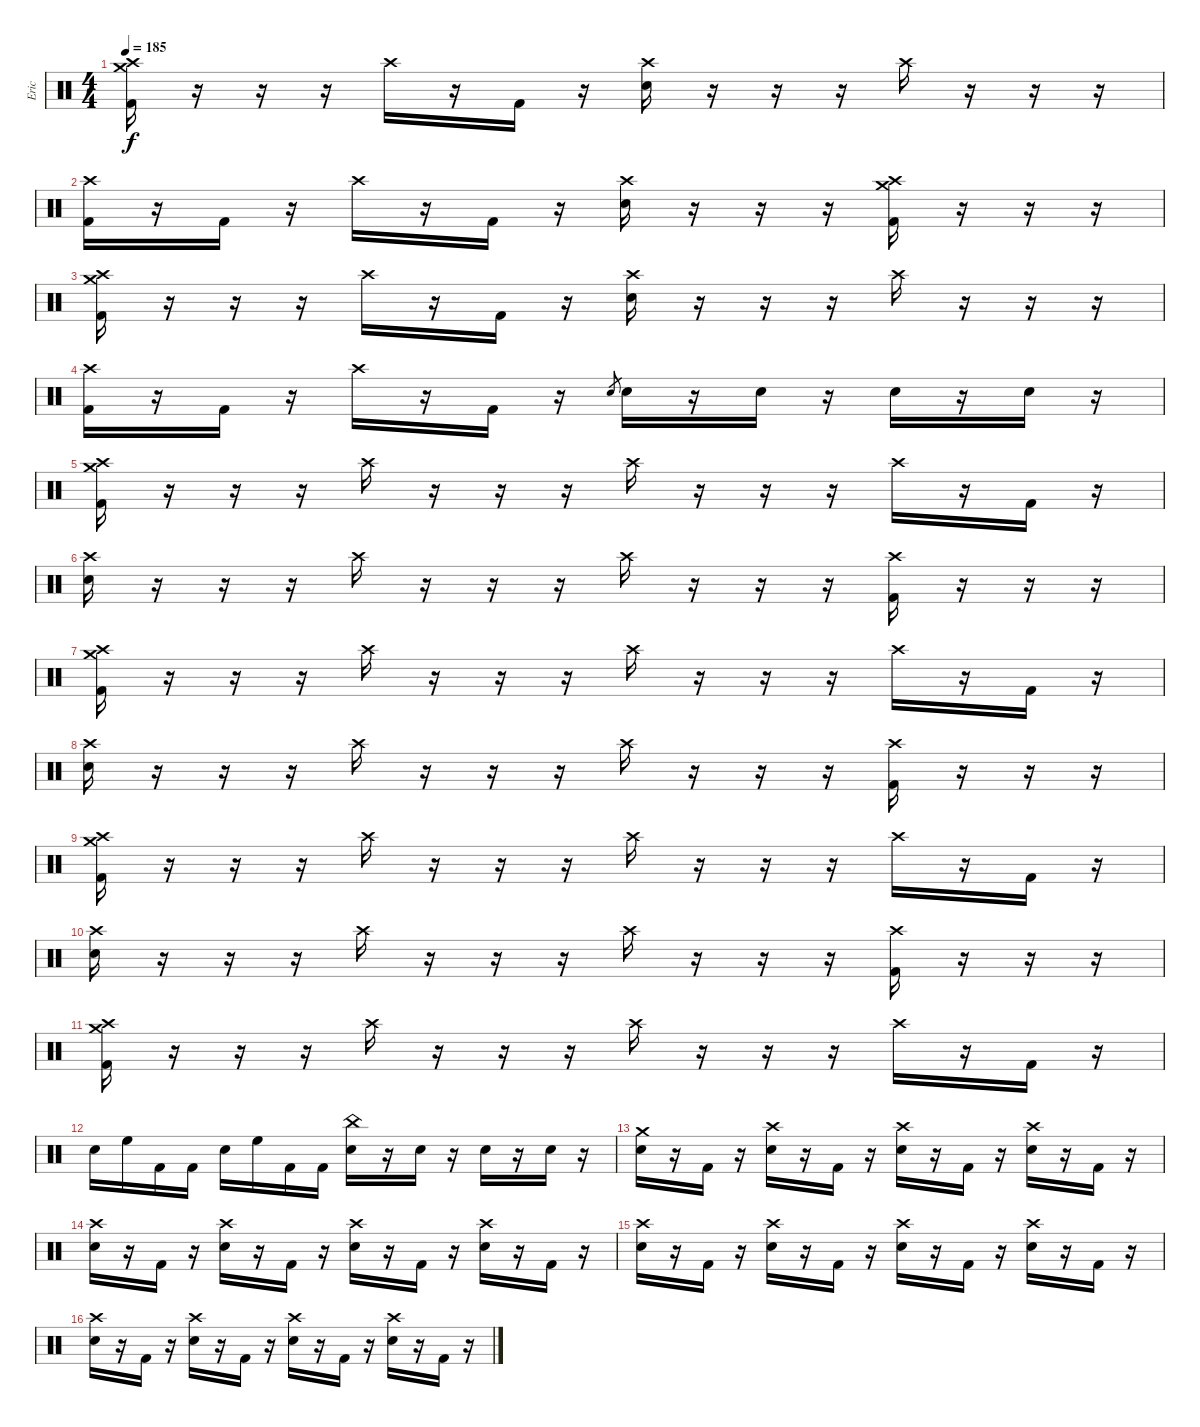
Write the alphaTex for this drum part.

\track ("Eric" "Eric") {instrument percussion}
\staff {score}
\articulation defaults
\ts (4 4)
\tempo 185
\clef neutral
\ks c
("Crash high (hit)" "Crash medium (hit)" "Kick (hit) 2").16{dy f} r.16 r.16 r.16 "Crash high (hit)".16 r.16 "Kick (hit) 2".16 r.16 ("Crash high (hit)" "Electric Snare (hit)").16 r.16 r.16 r.16 "Crash high (hit)".16 r.16 r.16 r.16 |
("Crash high (hit)" "Kick (hit) 2").16 r.16 "Kick (hit) 2".16 r.16 "Crash high (hit)".16 r.16 "Kick (hit) 2".16 r.16 ("Crash high (hit)" "Electric Snare (hit)").16 r.16 r.16 r.16 ("Crash medium (hit)" "Crash high (hit)" "Kick (hit) 2").16 r.16 r.16 r.16 |
("Crash high (hit)" "Crash medium (hit)" "Kick (hit) 2").16 r.16 r.16 r.16 "Crash high (hit)".16 r.16 "Kick (hit) 2".16 r.16 ("Crash high (hit)" "Electric Snare (hit)").16 r.16 r.16 r.16 "Crash high (hit)".16 r.16 r.16 r.16 |
("Crash high (hit)" "Kick (hit) 2").16 r.16 "Kick (hit) 2".16 r.16 "Crash high (hit)".16 r.16 "Kick (hit) 2".16 r.16 "Electric Snare (hit)".8{gr} "Electric Snare (hit)".16 r.16 "Electric Snare (hit)".16 r.16 "Electric Snare (hit)".16 r.16 "Electric Snare (hit)".16 r.16 |
("Crash high (hit)" "Crash medium (hit)" "Kick (hit) 2").16 r.16 r.16 r.16 "Crash high (hit)".16 r.16 r.16 r.16 "Crash high (hit)".16 r.16 r.16 r.16 "Crash high (hit)".16 r.16 "Kick (hit) 2".16 r.16 |
("Crash high (hit)" "Electric Snare (hit)").16 r.16 r.16 r.16 "Crash high (hit)".16 r.16 r.16 r.16 "Crash high (hit)".16 r.16 r.16 r.16 ("Crash high (hit)" "Kick (hit) 2").16 r.16 r.16 r.16 |
("Crash high (hit)" "Crash medium (hit)" "Kick (hit) 2").16 r.16 r.16 r.16 "Crash high (hit)".16 r.16 r.16 r.16 "Crash high (hit)".16 r.16 r.16 r.16 "Crash high (hit)".16 r.16 "Kick (hit) 2".16 r.16 |
("Crash high (hit)" "Electric Snare (hit)").16 r.16 r.16 r.16 "Crash high (hit)".16 r.16 r.16 r.16 "Crash high (hit)".16 r.16 r.16 r.16 ("Crash high (hit)" "Kick (hit) 2").16 r.16 r.16 r.16 |
("Crash high (hit)" "Crash medium (hit)" "Kick (hit) 2").16 r.16 r.16 r.16 "Crash high (hit)".16 r.16 r.16 r.16 "Crash high (hit)".16 r.16 r.16 r.16 "Crash high (hit)".16 r.16 "Kick (hit) 2".16 r.16 |
("Crash high (hit)" "Electric Snare (hit)").16 r.16 r.16 r.16 "Crash high (hit)".16 r.16 r.16 r.16 "Crash high (hit)".16 r.16 r.16 r.16 ("Crash high (hit)" "Kick (hit) 2").16 r.16 r.16 r.16 |
("Crash high (hit)" "Crash medium (hit)" "Kick (hit) 2").16 r.16 r.16 r.16 "Crash high (hit)".16 r.16 r.16 r.16 "Crash high (hit)".16 r.16 r.16 r.16 "Crash high (hit)".16 r.16 "Kick (hit) 2".16 r.16 |
"Electric Snare (hit)".16 "High Floor Tom (hit)".16 "Kick (hit) 2".16 "Kick (hit) 2".16 "Electric Snare (hit)".16 "High Floor Tom (hit)".16 "Kick (hit) 2".16 "Kick (hit) 2".16 ("China (hit)" "Electric Snare (hit)").16 r.16 "Electric Snare (hit)".16 r.16 "Electric Snare (hit)".16 r.16 "Electric Snare (hit)".16 r.16 |
("Crash medium (hit)" "Electric Snare (hit)").16 r.16 "Kick (hit) 2".16 r.16 ("Crash high (hit)" "Electric Snare (hit)").16 r.16 "Kick (hit) 2".16 r.16 ("Crash high (hit)" "Electric Snare (hit)").16 r.16 "Kick (hit) 2".16 r.16 ("Crash high (hit)" "Electric Snare (hit)").16 r.16 "Kick (hit) 2".16 r.16 |
("Crash high (hit)" "Electric Snare (hit)").16 r.16 "Kick (hit) 2".16 r.16 ("Crash high (hit)" "Electric Snare (hit)").16 r.16 "Kick (hit) 2".16 r.16 ("Crash high (hit)" "Electric Snare (hit)").16 r.16 "Kick (hit) 2".16 r.16 ("Crash high (hit)" "Electric Snare (hit)").16 r.16 "Kick (hit) 2".16 r.16 |
("Crash high (hit)" "Electric Snare (hit)").16 r.16 "Kick (hit) 2".16 r.16 ("Crash high (hit)" "Electric Snare (hit)").16 r.16 "Kick (hit) 2".16 r.16 ("Crash high (hit)" "Electric Snare (hit)").16 r.16 "Kick (hit) 2".16 r.16 ("Crash high (hit)" "Electric Snare (hit)").16 r.16 "Kick (hit) 2".16 r.16 |
("Crash high (hit)" "Electric Snare (hit)").16 r.16 "Kick (hit) 2".16 r.16 ("Crash high (hit)" "Electric Snare (hit)").16 r.16 "Kick (hit) 2".16 r.16 ("Crash high (hit)" "Electric Snare (hit)").16 r.16 "Kick (hit) 2".16 r.16 ("Crash high (hit)" "Electric Snare (hit)").16 r.16 "Kick (hit) 2".16 r.16
